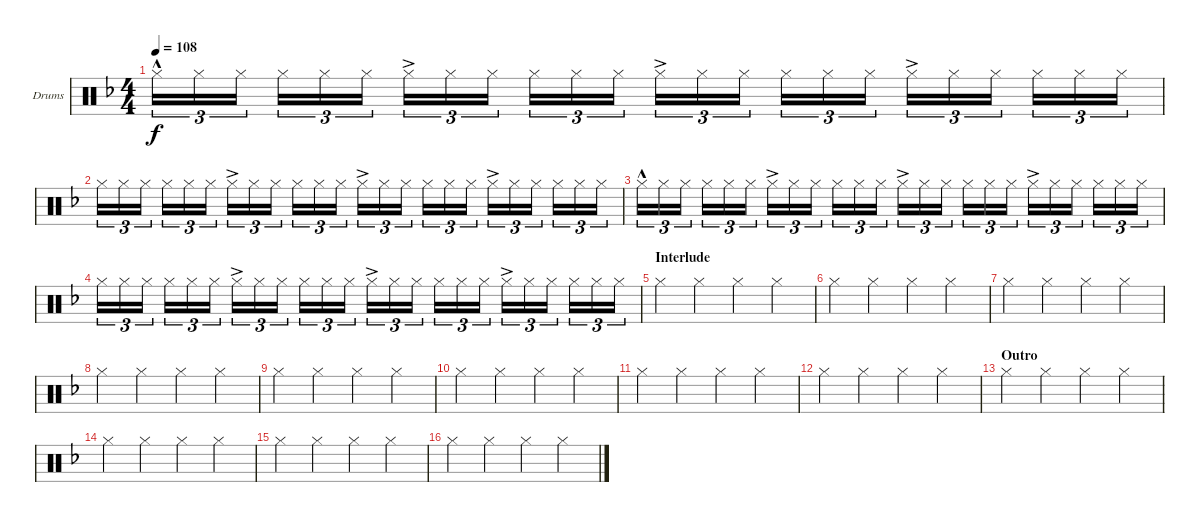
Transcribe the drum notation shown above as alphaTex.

\defaultSystemsLayout 4
\bracketExtendMode groupsimilarinstruments
\firstSystemTrackNameOrientation horizontal
\otherSystemsTrackNameOrientation horizontal
\track ("Drumkit" "Drums") {instrument percussion}
\staff {score}
\articulation defaults
\ts (4 4)
\tempo 108
\clef neutral
\ks f "Hi-Hat (closed)"{hac}.16{tu (3 2) dy f} "Hi-Hat (closed)".16{tu (3 2)} "Hi-Hat (closed)".16{tu (3 2)} "Hi-Hat (closed)".16{tu (3 2)} "Hi-Hat (closed)".16{tu (3 2)} "Hi-Hat (closed)".16{tu (3 2)} "Hi-Hat (closed)"{ac}.16{tu (3 2)} "Hi-Hat (closed)".16{tu (3 2)} "Hi-Hat (closed)".16{tu (3 2)} "Hi-Hat (closed)".16{tu (3 2)} "Hi-Hat (closed)".16{tu (3 2)} "Hi-Hat (closed)".16{tu (3 2)} "Hi-Hat (closed)"{ac}.16{tu (3 2)} "Hi-Hat (closed)".16{tu (3 2)} "Hi-Hat (closed)".16{tu (3 2)} "Hi-Hat (closed)".16{tu (3 2)} "Hi-Hat (closed)".16{tu (3 2)} "Hi-Hat (closed)".16{tu (3 2)} "Hi-Hat (closed)"{ac}.16{tu (3 2)} "Hi-Hat (closed)".16{tu (3 2)} "Hi-Hat (closed)".16{tu (3 2)} "Hi-Hat (closed)".16{tu (3 2)} "Hi-Hat (closed)".16{tu (3 2)} "Hi-Hat (closed)".16{tu (3 2)}
|
"Hi-Hat (closed)".16{tu (3 2)} "Hi-Hat (closed)".16{tu (3 2)} "Hi-Hat (closed)".16{tu (3 2)} "Hi-Hat (closed)".16{tu (3 2)} "Hi-Hat (closed)".16{tu (3 2)} "Hi-Hat (closed)".16{tu (3 2)} "Hi-Hat (closed)"{ac}.16{tu (3 2)} "Hi-Hat (closed)".16{tu (3 2)} "Hi-Hat (closed)".16{tu (3 2)} "Hi-Hat (closed)".16{tu (3 2)} "Hi-Hat (closed)".16{tu (3 2)} "Hi-Hat (closed)".16{tu (3 2)} "Hi-Hat (closed)"{ac}.16{tu (3 2)} "Hi-Hat (closed)".16{tu (3 2)} "Hi-Hat (closed)".16{tu (3 2)} "Hi-Hat (closed)".16{tu (3 2)} "Hi-Hat (closed)".16{tu (3 2)} "Hi-Hat (closed)".16{tu (3 2)} "Hi-Hat (closed)"{ac}.16{tu (3 2)} "Hi-Hat (closed)".16{tu (3 2)} "Hi-Hat (closed)".16{tu (3 2)} "Hi-Hat (closed)".16{tu (3 2)} "Hi-Hat (closed)".16{tu (3 2)} "Hi-Hat (closed)".16{tu (3 2)} |
"Hi-Hat (closed)"{hac}.16{tu (3 2)} "Hi-Hat (closed)".16{tu (3 2)} "Hi-Hat (closed)".16{tu (3 2)} "Hi-Hat (closed)".16{tu (3 2)} "Hi-Hat (closed)".16{tu (3 2)} "Hi-Hat (closed)".16{tu (3 2)} "Hi-Hat (closed)"{ac}.16{tu (3 2)} "Hi-Hat (closed)".16{tu (3 2)} "Hi-Hat (closed)".16{tu (3 2)} "Hi-Hat (closed)".16{tu (3 2)} "Hi-Hat (closed)".16{tu (3 2)} "Hi-Hat (closed)".16{tu (3 2)} "Hi-Hat (closed)"{ac}.16{tu (3 2)} "Hi-Hat (closed)".16{tu (3 2)} "Hi-Hat (closed)".16{tu (3 2)} "Hi-Hat (closed)".16{tu (3 2)} "Hi-Hat (closed)".16{tu (3 2)} "Hi-Hat (closed)".16{tu (3 2)} "Hi-Hat (closed)"{ac}.16{tu (3 2)} "Hi-Hat (closed)".16{tu (3 2)} "Hi-Hat (closed)".16{tu (3 2)} "Hi-Hat (closed)".16{tu (3 2)} "Hi-Hat (closed)".16{tu (3 2)} "Hi-Hat (closed)".16{tu (3 2)} |
"Hi-Hat (closed)".16{tu (3 2)} "Hi-Hat (closed)".16{tu (3 2)} "Hi-Hat (closed)".16{tu (3 2)} "Hi-Hat (closed)".16{tu (3 2)} "Hi-Hat (closed)".16{tu (3 2)} "Hi-Hat (closed)".16{tu (3 2)} "Hi-Hat (closed)"{ac}.16{tu (3 2)} "Hi-Hat (closed)".16{tu (3 2)} "Hi-Hat (closed)".16{tu (3 2)} "Hi-Hat (closed)".16{tu (3 2)} "Hi-Hat (closed)".16{tu (3 2)} "Hi-Hat (closed)".16{tu (3 2)} "Hi-Hat (closed)"{ac}.16{tu (3 2)} "Hi-Hat (closed)".16{tu (3 2)} "Hi-Hat (closed)".16{tu (3 2)} "Hi-Hat (closed)".16{tu (3 2)} "Hi-Hat (closed)".16{tu (3 2)} "Hi-Hat (closed)".16{tu (3 2)} "Hi-Hat (closed)"{ac}.16{tu (3 2)} "Hi-Hat (closed)".16{tu (3 2)} "Hi-Hat (closed)".16{tu (3 2)} "Hi-Hat (closed)".16{tu (3 2)} "Hi-Hat (closed)".16{tu (3 2)} "Hi-Hat (closed)".16{tu (3 2)} |
\section ("" "Interlude")
"Hi-Hat (closed)".4 "Hi-Hat (closed)".4 "Hi-Hat (closed)".4 "Hi-Hat (closed)".4 |
"Hi-Hat (closed)".4 "Hi-Hat (closed)".4 "Hi-Hat (closed)".4 "Hi-Hat (closed)".4 |
"Hi-Hat (closed)".4 "Hi-Hat (closed)".4 "Hi-Hat (closed)".4 "Hi-Hat (closed)".4 |
"Hi-Hat (closed)".4 "Hi-Hat (closed)".4 "Hi-Hat (closed)".4 "Hi-Hat (closed)".4 |
"Hi-Hat (closed)".4 "Hi-Hat (closed)".4 "Hi-Hat (closed)".4 "Hi-Hat (closed)".4 |
"Hi-Hat (closed)".4 "Hi-Hat (closed)".4 "Hi-Hat (closed)".4 "Hi-Hat (closed)".4 |
"Hi-Hat (closed)".4 "Hi-Hat (closed)".4 "Hi-Hat (closed)".4 "Hi-Hat (closed)".4 |
"Hi-Hat (closed)".4 "Hi-Hat (closed)".4 "Hi-Hat (closed)".4 "Hi-Hat (closed)".4 |
\section ("" "Outro")
"Hi-Hat (closed)".4 "Hi-Hat (closed)".4 "Hi-Hat (closed)".4 "Hi-Hat (closed)".4 |
"Hi-Hat (closed)".4 "Hi-Hat (closed)".4 "Hi-Hat (closed)".4 "Hi-Hat (closed)".4 |
"Hi-Hat (closed)".4 "Hi-Hat (closed)".4 "Hi-Hat (closed)".4 "Hi-Hat (closed)".4 |
"Hi-Hat (closed)".4 "Hi-Hat (closed)".4 "Hi-Hat (closed)".4 "Hi-Hat (closed)".4
